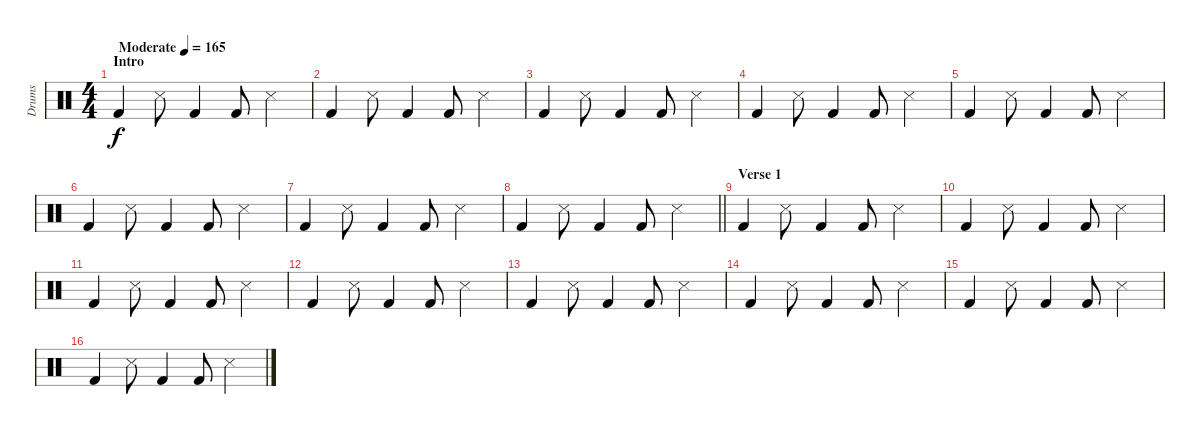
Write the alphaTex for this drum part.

\track ("Drums" "Drums") {instrument percussion}
\staff {score}
\articulation defaults
\ts (4 4)
\section ("" "Intro")
\tempo (165 "Moderate")
\clef neutral
\ks c "Kick (hit) 2".4{dy f} "Snare (side stick) 3".8 "Kick (hit) 2".4 "Kick (hit) 2".8 "Snare (side stick) 3".4
|
"Kick (hit) 2".4 "Snare (side stick) 3".8 "Kick (hit) 2".4 "Kick (hit) 2".8 "Snare (side stick) 3".4 |
"Kick (hit) 2".4 "Snare (side stick) 3".8 "Kick (hit) 2".4 "Kick (hit) 2".8 "Snare (side stick) 3".4 |
"Kick (hit) 2".4 "Snare (side stick) 3".8 "Kick (hit) 2".4 "Kick (hit) 2".8 "Snare (side stick) 3".4 |
"Kick (hit) 2".4 "Snare (side stick) 3".8 "Kick (hit) 2".4 "Kick (hit) 2".8 "Snare (side stick) 3".4 |
"Kick (hit) 2".4 "Snare (side stick) 3".8 "Kick (hit) 2".4 "Kick (hit) 2".8 "Snare (side stick) 3".4 |
"Kick (hit) 2".4 "Snare (side stick) 3".8 "Kick (hit) 2".4 "Kick (hit) 2".8 "Snare (side stick) 3".4 |
\barLineRight lightlight "Kick (hit) 2".4 "Snare (side stick) 3".8 "Kick (hit) 2".4 "Kick (hit) 2".8 "Snare (side stick) 3".4
|
\section ("" "Verse 1")
"Kick (hit) 2".4 "Snare (side stick) 3".8 "Kick (hit) 2".4 "Kick (hit) 2".8 "Snare (side stick) 3".4 |
"Kick (hit) 2".4 "Snare (side stick) 3".8 "Kick (hit) 2".4 "Kick (hit) 2".8 "Snare (side stick) 3".4 |
"Kick (hit) 2".4 "Snare (side stick) 3".8 "Kick (hit) 2".4 "Kick (hit) 2".8 "Snare (side stick) 3".4 |
"Kick (hit) 2".4 "Snare (side stick) 3".8 "Kick (hit) 2".4 "Kick (hit) 2".8 "Snare (side stick) 3".4 |
"Kick (hit) 2".4 "Snare (side stick) 3".8 "Kick (hit) 2".4 "Kick (hit) 2".8 "Snare (side stick) 3".4 |
"Kick (hit) 2".4 "Snare (side stick) 3".8 "Kick (hit) 2".4 "Kick (hit) 2".8 "Snare (side stick) 3".4 |
"Kick (hit) 2".4 "Snare (side stick) 3".8 "Kick (hit) 2".4 "Kick (hit) 2".8 "Snare (side stick) 3".4 |
"Kick (hit) 2".4 "Snare (side stick) 3".8 "Kick (hit) 2".4 "Kick (hit) 2".8 "Snare (side stick) 3".4
